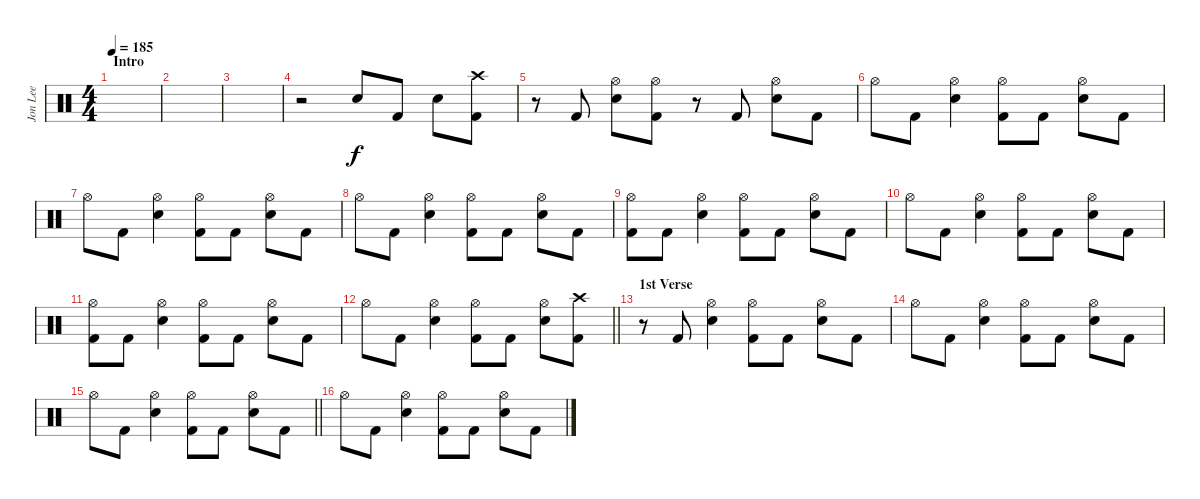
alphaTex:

\track ("Jon Lee" "Jon Lee") {instrument percussion bank 10}
\staff {score}
\articulation defaults
\ts (4 4)
\section ("" "Intro")
\tempo 185
\clef neutral
\ks c
|
|
|
r.2 "Snare (hit) 2".8 "Kick (hit) 2".8 "Snare (hit) 2".8 ("Kick (hit) 2" "Crash high (hit)").8 |
r.8 "Kick (hit) 2".8 ("Snare (hit) 2" "Hi-Hat (open)").8 ("Hi-Hat (open)" "Kick (hit) 2").8 r.8 "Kick (hit) 2".8 ("Snare (hit) 2" "Hi-Hat (open)").8 "Kick (hit) 2".8 |
"Hi-Hat (open)".8 "Kick (hit) 2".8 ("Snare (hit) 2" "Hi-Hat (open)").4 ("Hi-Hat (open)" "Kick (hit) 2").8 "Kick (hit) 2".8 ("Snare (hit) 2" "Hi-Hat (open)").8 "Kick (hit) 2".8 |
"Hi-Hat (open)".8 "Kick (hit) 2".8 ("Snare (hit) 2" "Hi-Hat (open)").4 ("Hi-Hat (open)" "Kick (hit) 2").8 "Kick (hit) 2".8 ("Snare (hit) 2" "Hi-Hat (open)").8 "Kick (hit) 2".8 |
"Hi-Hat (open)".8 "Kick (hit) 2".8 ("Snare (hit) 2" "Hi-Hat (open)").4 ("Hi-Hat (open)" "Kick (hit) 2").8 "Kick (hit) 2".8 ("Snare (hit) 2" "Hi-Hat (open)").8 "Kick (hit) 2".8 |
("Hi-Hat (open)" "Kick (hit) 2").8 "Kick (hit) 2".8 ("Snare (hit) 2" "Hi-Hat (open)").4 ("Hi-Hat (open)" "Kick (hit) 2").8 "Kick (hit) 2".8 ("Snare (hit) 2" "Hi-Hat (open)").8 "Kick (hit) 2".8 |
"Hi-Hat (open)".8 "Kick (hit) 2".8 ("Snare (hit) 2" "Hi-Hat (open)").4 ("Hi-Hat (open)" "Kick (hit) 2").8 "Kick (hit) 2".8 ("Snare (hit) 2" "Hi-Hat (open)").8 "Kick (hit) 2".8 |
("Hi-Hat (open)" "Kick (hit) 2").8 "Kick (hit) 2".8 ("Snare (hit) 2" "Hi-Hat (open)").4 ("Hi-Hat (open)" "Kick (hit) 2").8 "Kick (hit) 2".8 ("Snare (hit) 2" "Hi-Hat (open)").8 "Kick (hit) 2".8 |
\barLineRight lightlight "Hi-Hat (open)".8 "Kick (hit) 2".8
("Snare (hit) 2" "Hi-Hat (open)").4 ("Hi-Hat (open)" "Kick (hit) 2").8 "Kick (hit) 2".8 ("Snare (hit) 2" "Hi-Hat (open)").8 ("Kick (hit) 2" "Crash high (hit)").8 |
\section ("" "1st Verse")
r.8 "Kick (hit) 2".8 ("Snare (hit) 2" "Hi-Hat (open)").4 ("Hi-Hat (open)" "Kick (hit) 2").8 "Kick (hit) 2".8 ("Snare (hit) 2" "Hi-Hat (open)").8 "Kick (hit) 2".8 |
"Hi-Hat (open)".8 "Kick (hit) 2".8 ("Snare (hit) 2" "Hi-Hat (open)").4 ("Hi-Hat (open)" "Kick (hit) 2").8 "Kick (hit) 2".8 ("Snare (hit) 2" "Hi-Hat (open)").8 "Kick (hit) 2".8 |
\barLineRight lightlight "Hi-Hat (open)".8 "Kick (hit) 2".8
("Snare (hit) 2" "Hi-Hat (open)").4 ("Hi-Hat (open)" "Kick (hit) 2").8 "Kick (hit) 2".8 ("Snare (hit) 2" "Hi-Hat (open)").8 "Kick (hit) 2".8 |
"Hi-Hat (open)".8 "Kick (hit) 2".8 ("Snare (hit) 2" "Hi-Hat (open)").4 ("Hi-Hat (open)" "Kick (hit) 2").8 "Kick (hit) 2".8 ("Snare (hit) 2" "Hi-Hat (open)").8 "Kick (hit) 2".8
